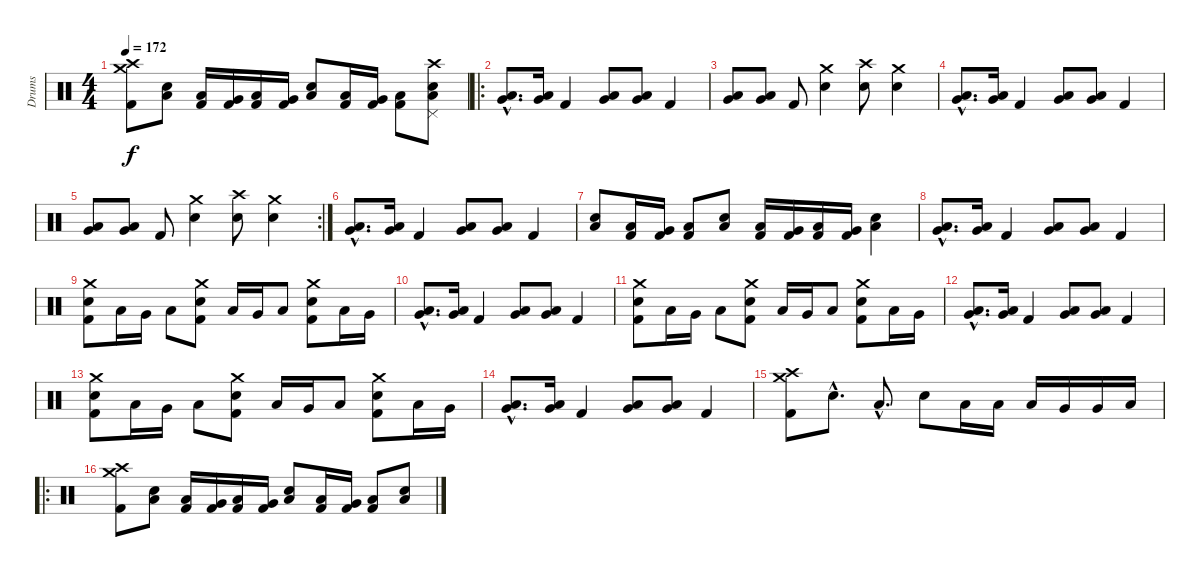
\track ("Drums" "Drums") {instrument percussion}
\staff {score}
\articulation defaults
\ts (4 4)
\tempo 172
\clef neutral
\ks c
("Crash medium (hit)" "Crash high (hit)" "Kick (hit) 2").8{dy f} ("Low Floor Tom (hit)" "Electric Snare (hit)").8 ("Low Floor Tom (hit)" "Kick (hit) 2").16 ("Very Low Tom (hit)" "Kick (hit) 2").16 ("Low Floor Tom (hit)" "Kick (hit) 2").16 ("Very Low Tom (hit)" "Kick (hit) 2").16 ("Low Floor Tom (hit)" "Electric Snare (hit)").8 ("Low Floor Tom (hit)" "Kick (hit) 2").16 ("Very Low Tom (hit)" "Kick (hit) 2").16 ("Low Floor Tom (hit)" "Kick (hit) 2").8 ("Low Floor Tom (hit)" "Crash high (hit)" "Pedal Hi-Hat (hit)" "Electric Snare (hit)").8 |
\ro
("Very Low Tom (hit)"{hac} "Low Tom (hit)"{hac}).8{d} ("Very Low Tom (hit)" "Low Tom (hit)").16 "Kick (hit) 2".4 ("Low Floor Tom (hit)" "Very Low Tom (hit)").8 ("Low Floor Tom (hit)" "Very Low Tom (hit)").8 "Kick (hit) 2".4 |
("Very Low Tom (hit)" "Low Tom (hit)").8 ("Very Low Tom (hit)" "Low Tom (hit)").8 "Kick (hit) 2".8 ("Crash medium (hit)" "Electric Snare (hit)").4 ("Crash high (hit)" "Electric Snare (hit)").8 ("Crash medium (hit)" "Electric Snare (hit)").4 |
("Very Low Tom (hit)"{hac} "Low Tom (hit)"{hac}).8{d} ("Very Low Tom (hit)" "Low Tom (hit)").16 "Kick (hit) 2".4 ("Low Floor Tom (hit)" "Very Low Tom (hit)").8 ("Low Floor Tom (hit)" "Very Low Tom (hit)").8 "Kick (hit) 2".4 |
\rc 2
("Very Low Tom (hit)" "Low Tom (hit)").8 ("Very Low Tom (hit)" "Low Tom (hit)").8 "Kick (hit) 2".8 ("Crash medium (hit)" "Electric Snare (hit)").4 ("Crash high (hit)" "Electric Snare (hit)").8 ("Crash medium (hit)" "Electric Snare (hit)").4 |
("Very Low Tom (hit)"{hac} "Low Tom (hit)"{hac}).8{d} ("Very Low Tom (hit)" "Low Tom (hit)").16 "Kick (hit) 2".4 ("Low Floor Tom (hit)" "Very Low Tom (hit)").8 ("Low Floor Tom (hit)" "Very Low Tom (hit)").8 "Kick (hit) 2".4 |
("Low Floor Tom (hit)" "Electric Snare (hit)").8 ("Low Floor Tom (hit)" "Kick (hit) 2").16 ("Very Low Tom (hit)" "Kick (hit) 2").16 ("Low Floor Tom (hit)" "Kick (hit) 2").8 ("Low Floor Tom (hit)" "Electric Snare (hit)").8 ("Low Floor Tom (hit)" "Kick (hit) 2").16 ("Very Low Tom (hit)" "Kick (hit) 2").16 ("Low Floor Tom (hit)" "Kick (hit) 2").16 ("Very Low Tom (hit)" "Kick (hit) 2").16 ("Low Floor Tom (hit)" "Electric Snare (hit)").4 |
("Very Low Tom (hit)"{hac} "Low Tom (hit)"{hac}).8{d} ("Very Low Tom (hit)" "Low Tom (hit)").16 "Kick (hit) 2".4 ("Low Floor Tom (hit)" "Very Low Tom (hit)").8 ("Low Floor Tom (hit)" "Very Low Tom (hit)").8 "Kick (hit) 2".4 |
("Crash medium (hit)" "Electric Snare (hit)" "Kick (hit) 2").8 "Low Floor Tom (hit)".16 "Very Low Tom (hit)".16 "Low Floor Tom (hit)".8 ("Crash medium (hit)" "Electric Snare (hit)" "Kick (hit) 2").8 "Low Floor Tom (hit)".16 "Very Low Tom (hit)".16 "Low Floor Tom (hit)".8 ("Crash medium (hit)" "Electric Snare (hit)" "Kick (hit) 2").8 "Low Floor Tom (hit)".16 "Very Low Tom (hit)".16 |
("Very Low Tom (hit)"{hac} "Low Tom (hit)"{hac}).8{d} ("Very Low Tom (hit)" "Low Tom (hit)").16 "Kick (hit) 2".4 ("Low Floor Tom (hit)" "Very Low Tom (hit)").8 ("Low Floor Tom (hit)" "Very Low Tom (hit)").8 "Kick (hit) 2".4 |
("Crash medium (hit)" "Electric Snare (hit)" "Kick (hit) 2").8 "Low Floor Tom (hit)".16 "Very Low Tom (hit)".16 "Low Floor Tom (hit)".8 ("Crash medium (hit)" "Electric Snare (hit)" "Kick (hit) 2").8 "Low Floor Tom (hit)".16 "Very Low Tom (hit)".16 "Low Floor Tom (hit)".8 ("Crash medium (hit)" "Electric Snare (hit)" "Kick (hit) 2").8 "Low Floor Tom (hit)".16 "Very Low Tom (hit)".16 |
("Very Low Tom (hit)"{hac} "Low Tom (hit)"{hac}).8{d} ("Very Low Tom (hit)" "Low Tom (hit)").16 "Kick (hit) 2".4 ("Low Floor Tom (hit)" "Very Low Tom (hit)").8 ("Low Floor Tom (hit)" "Very Low Tom (hit)").8 "Kick (hit) 2".4 |
("Crash medium (hit)" "Electric Snare (hit)" "Kick (hit) 2").8 "Low Floor Tom (hit)".16 "Very Low Tom (hit)".16 "Low Floor Tom (hit)".8 ("Crash medium (hit)" "Electric Snare (hit)" "Kick (hit) 2").8 "Low Floor Tom (hit)".16 "Very Low Tom (hit)".16 "Low Floor Tom (hit)".8 ("Crash medium (hit)" "Electric Snare (hit)" "Kick (hit) 2").8 "Low Floor Tom (hit)".16 "Very Low Tom (hit)".16 |
("Very Low Tom (hit)"{hac} "Low Tom (hit)"{hac}).8{d} ("Very Low Tom (hit)" "Low Tom (hit)").16 "Kick (hit) 2".4 ("Low Floor Tom (hit)" "Very Low Tom (hit)").8 ("Low Floor Tom (hit)" "Very Low Tom (hit)").8 "Kick (hit) 2".4 |
("Crash medium (hit)" "Crash high (hit)" "Kick (hit) 2").8 "Electric Snare (hit)"{hac}.8{d} "Low Floor Tom (hit)"{hac}.8{d} "Electric Snare (hit)".8 "Low Tom (hit)".16 "Low Tom (hit)".16 "Low Tom (hit)".16 "Very Low Tom (hit)".16 "Very Low Tom (hit)".16 "Low Floor Tom (hit)".16 |
\ro
("Crash medium (hit)" "Crash high (hit)" "Kick (hit) 2").8 ("Low Floor Tom (hit)" "Electric Snare (hit)").8 ("Low Floor Tom (hit)" "Kick (hit) 2").16 ("Very Low Tom (hit)" "Kick (hit) 2").16 ("Low Floor Tom (hit)" "Kick (hit) 2").16 ("Very Low Tom (hit)" "Kick (hit) 2").16 ("Low Floor Tom (hit)" "Electric Snare (hit)").8 ("Low Floor Tom (hit)" "Kick (hit) 2").16 ("Very Low Tom (hit)" "Kick (hit) 2").16 ("Low Floor Tom (hit)" "Kick (hit) 2").8 ("Low Floor Tom (hit)" "Electric Snare (hit)").8
